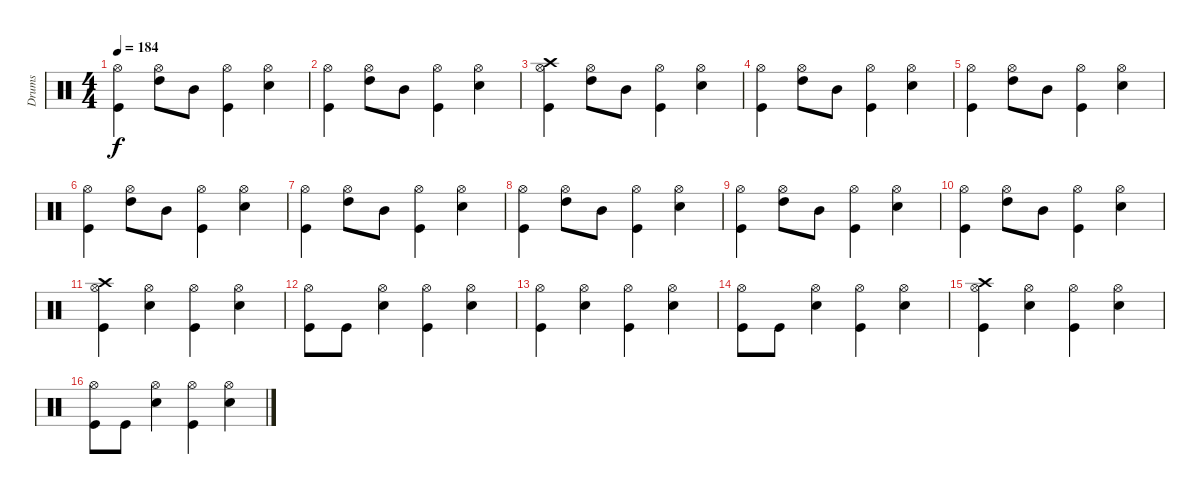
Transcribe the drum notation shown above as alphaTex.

\track ("Drums" "Drums") {instrument percussion}
\staff {score}
\articulation defaults
\ts (4 4)
\tempo 184
\clef neutral
\ks c
("Hi-Hat (open)" "Kick (hit)").4{dy f} ("Hi-Hat (open)" "High Tom (hit)").8 "Mid Tom (hit)".8 ("Hi-Hat (open)" "Kick (hit)").4 ("Hi-Hat (open)" "Electric Snare (hit)").4 |
("Hi-Hat (open)" "Kick (hit)").4 ("Hi-Hat (open)" "High Tom (hit)").8 "Mid Tom (hit)".8 ("Hi-Hat (open)" "Kick (hit)").4 ("Hi-Hat (open)" "Electric Snare (hit)").4 |
("Crash high (hit)" "Hi-Hat (open)" "Kick (hit)").4 ("Hi-Hat (open)" "High Tom (hit)").8 "Mid Tom (hit)".8 ("Hi-Hat (open)" "Kick (hit)").4 ("Hi-Hat (open)" "Electric Snare (hit)").4 |
("Hi-Hat (open)" "Kick (hit)").4 ("Hi-Hat (open)" "High Tom (hit)").8 "Mid Tom (hit)".8 ("Hi-Hat (open)" "Kick (hit)").4 ("Hi-Hat (open)" "Electric Snare (hit)").4 |
("Hi-Hat (open)" "Kick (hit)").4 ("Hi-Hat (open)" "High Tom (hit)").8 "Mid Tom (hit)".8 ("Hi-Hat (open)" "Kick (hit)").4 ("Hi-Hat (open)" "Electric Snare (hit)").4 |
("Hi-Hat (open)" "Kick (hit)").4 ("Hi-Hat (open)" "High Tom (hit)").8 "Mid Tom (hit)".8 ("Hi-Hat (open)" "Kick (hit)").4 ("Hi-Hat (open)" "Electric Snare (hit)").4 |
("Hi-Hat (open)" "Kick (hit)").4 ("Hi-Hat (open)" "High Tom (hit)").8 "Mid Tom (hit)".8 ("Hi-Hat (open)" "Kick (hit)").4 ("Hi-Hat (open)" "Electric Snare (hit)").4 |
("Hi-Hat (open)" "Kick (hit)").4 ("Hi-Hat (open)" "High Tom (hit)").8 "Mid Tom (hit)".8 ("Hi-Hat (open)" "Kick (hit)").4 ("Hi-Hat (open)" "Electric Snare (hit)").4 |
("Hi-Hat (open)" "Kick (hit)").4 ("Hi-Hat (open)" "High Tom (hit)").8 "Mid Tom (hit)".8 ("Hi-Hat (open)" "Kick (hit)").4 ("Hi-Hat (open)" "Electric Snare (hit)").4 |
("Hi-Hat (open)" "Kick (hit)").4 ("Hi-Hat (open)" "High Tom (hit)").8 "Mid Tom (hit)".8 ("Hi-Hat (open)" "Kick (hit)").4 ("Hi-Hat (open)" "Electric Snare (hit)").4 |
("Crash high (hit)" "Hi-Hat (open)" "Kick (hit)").4 ("Hi-Hat (open)" "Electric Snare (hit)").4 ("Hi-Hat (open)" "Kick (hit)").4 ("Hi-Hat (open)" "Electric Snare (hit)").4 |
("Hi-Hat (open)" "Kick (hit)").8 "Kick (hit)".8 ("Hi-Hat (open)" "Electric Snare (hit)").4 ("Hi-Hat (open)" "Kick (hit)").4 ("Hi-Hat (open)" "Electric Snare (hit)").4 |
("Hi-Hat (open)" "Kick (hit)").4 ("Hi-Hat (open)" "Electric Snare (hit)").4 ("Hi-Hat (open)" "Kick (hit)").4 ("Hi-Hat (open)" "Electric Snare (hit)").4 |
("Hi-Hat (open)" "Kick (hit)").8 "Kick (hit)".8 ("Hi-Hat (open)" "Electric Snare (hit)").4 ("Hi-Hat (open)" "Kick (hit)").4 ("Hi-Hat (open)" "Electric Snare (hit)").4 |
("Crash high (hit)" "Hi-Hat (open)" "Kick (hit)").4 ("Hi-Hat (open)" "Electric Snare (hit)").4 ("Hi-Hat (open)" "Kick (hit)").4 ("Hi-Hat (open)" "Electric Snare (hit)").4 |
("Hi-Hat (open)" "Kick (hit)").8 "Kick (hit)".8 ("Hi-Hat (open)" "Electric Snare (hit)").4 ("Hi-Hat (open)" "Kick (hit)").4 ("Hi-Hat (open)" "Electric Snare (hit)").4
